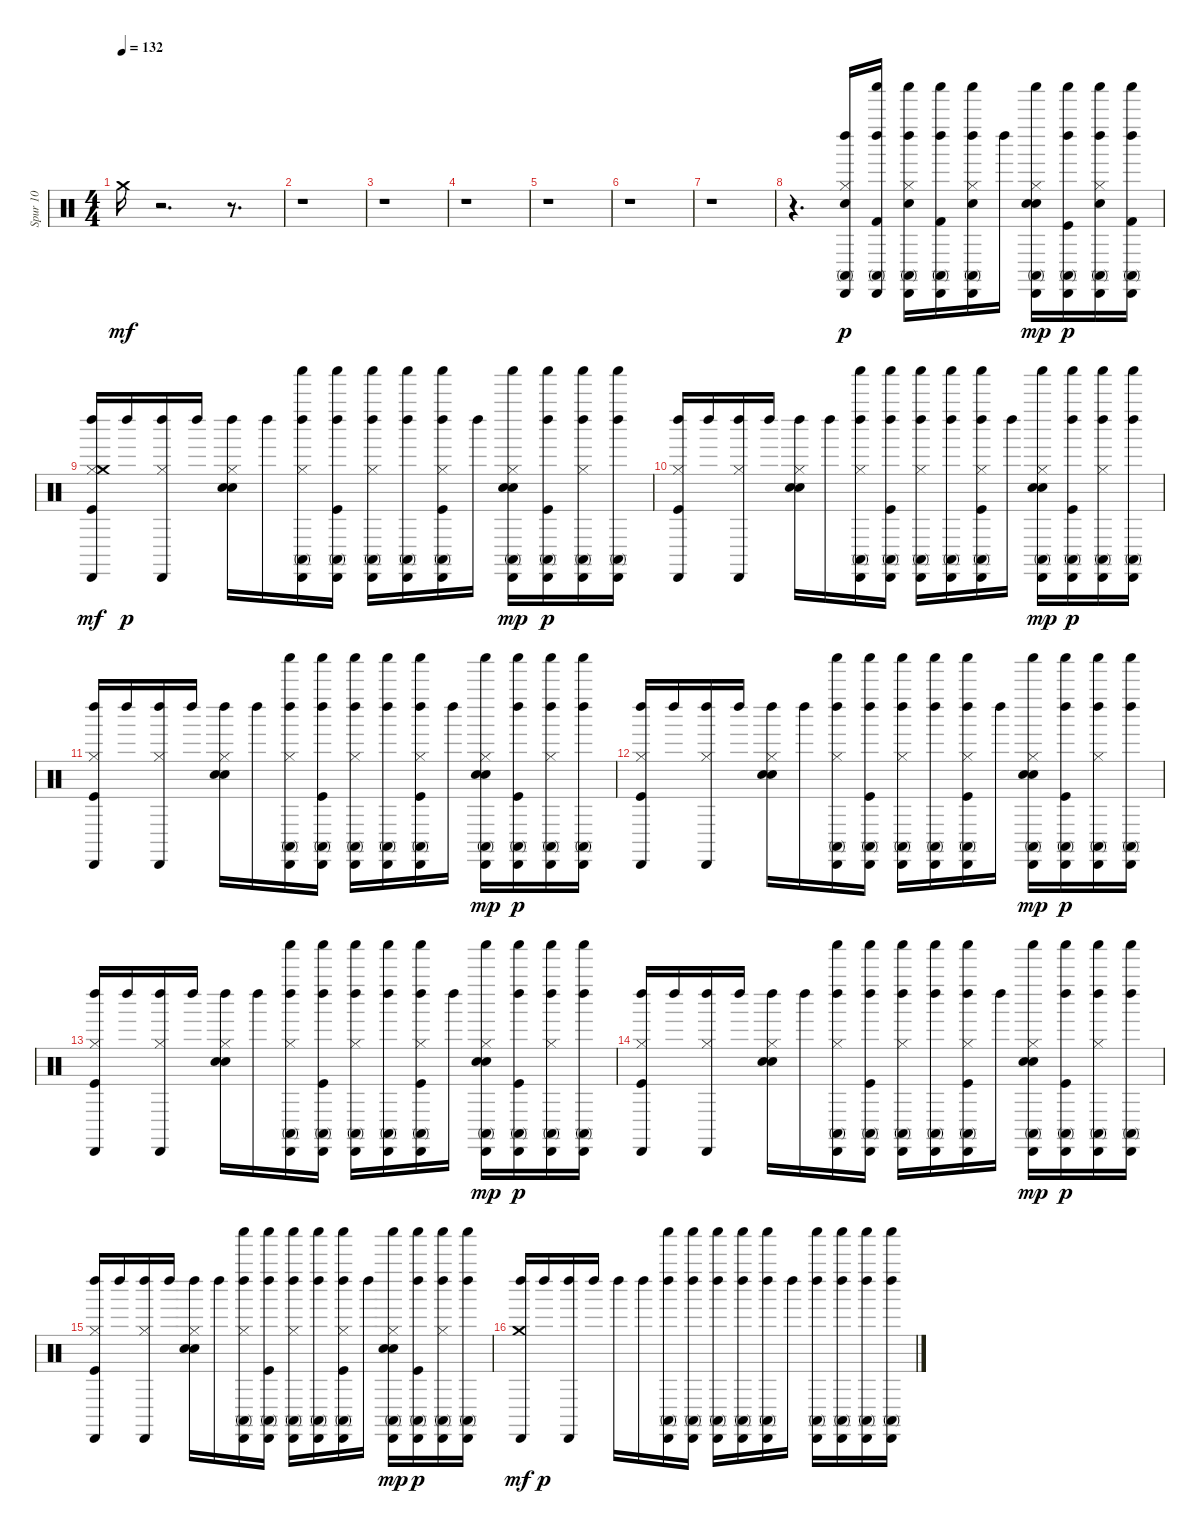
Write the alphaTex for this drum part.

\track ("Spur 10" "Spur 10") {instrument percussion}
\staff {score}
\articulation defaults
\ts (4 4)
\tempo 132
\clef neutral
\ks c "Crash medium (hit)".16{dy mf}
r.2{d} r.8{d} |
r.1 |
r.1 |
r.1 |
r.1 |
r.1 |
r.1 |
r.4{d} ("Cabasa (hit)" "Hi-Hat (closed)" "Electric Snare (hit)" "Conga high (mute)" "Left Maraca (hit)").16{dy p} ("Shaker (hit)" "Cabasa (hit)" "Kick (hit) 2" "Conga high (mute)" "Left Maraca (hit)").16 ("Shaker (hit)" "Cabasa (hit)" "Hi-Hat (closed)" "Electric Snare (hit)" "Conga high (mute)" "Left Maraca (hit)").16 ("Shaker (hit)" "Cabasa (hit)" "Kick (hit) 2" "Conga high (mute)" "Left Maraca (hit)").16 ("Shaker (hit)" "Cabasa (hit)" "Electric Snare (hit)" "Hi-Hat (closed)" "Conga high (mute)" "Left Maraca (hit)").16 "Left Maraca (hit)".16 ("Shaker (hit)" "Cabasa (hit)" "Hi-Hat (closed)" "Snare (hit) 2" "Conga high (mute)" "Hand Clap (hit)").16{dy mp} ("Shaker (hit)" "Cabasa (hit)" "Kick (hit)" "Conga high (mute)" "Left Maraca (hit)").16{dy p} ("Shaker (hit)" "Cabasa (hit)" "Hi-Hat (closed)" "Electric Snare (hit)" "Conga high (mute)" "Left Maraca (hit)").16 ("Shaker (hit)" "Cabasa (hit)" "Kick (hit) 2" "Conga high (mute)" "Left Maraca (hit)").16 |
("Kick (hit)" "Hi-Hat (closed)" "Cabasa (hit)" "Left Maraca (hit)" "Crash medium (hit)").16{dy mf} "Left Maraca (hit)".16{dy p} ("Hi-Hat (closed)" "Cabasa (hit)" "Left Maraca (hit)").16 "Left Maraca (hit)".16 ("Hi-Hat (closed)" "Snare (hit) 2" "Hand Clap (hit)" "Left Maraca (hit)").16 "Left Maraca (hit)".16 ("Shaker (hit)" "Hi-Hat (closed)" "Cabasa (hit)" "Conga high (mute)" "Left Maraca (hit)").16 ("Shaker (hit)" "Kick (hit)" "Cabasa (hit)" "Conga high (mute)" "Left Maraca (hit)").16 ("Shaker (hit)" "Hi-Hat (closed)" "Cabasa (hit)" "Conga high (mute)" "Left Maraca (hit)").16 ("Shaker (hit)" "Cabasa (hit)" "Conga high (mute)" "Left Maraca (hit)").16 ("Shaker (hit)" "Kick (hit)" "Hi-Hat (closed)" "Cabasa (hit)" "Conga high (mute)" "Left Maraca (hit)").16 "Left Maraca (hit)".16 ("Shaker (hit)" "Hi-Hat (closed)" "Snare (hit) 2" "Cabasa (hit)" "Conga high (mute)" "Hand Clap (hit)").16{dy mp} ("Shaker (hit)" "Kick (hit)" "Cabasa (hit)" "Conga high (mute)" "Left Maraca (hit)").16{dy p} ("Shaker (hit)" "Hi-Hat (closed)" "Cabasa (hit)" "Conga high (mute)" "Left Maraca (hit)").16 ("Shaker (hit)" "Cabasa (hit)" "Conga high (mute)" "Left Maraca (hit)").16 |
("Kick (hit)" "Hi-Hat (closed)" "Cabasa (hit)" "Left Maraca (hit)").16 "Left Maraca (hit)".16 ("Hi-Hat (closed)" "Cabasa (hit)" "Left Maraca (hit)").16 "Left Maraca (hit)".16 ("Hi-Hat (closed)" "Snare (hit) 2" "Hand Clap (hit)" "Left Maraca (hit)").16 "Left Maraca (hit)".16 ("Shaker (hit)" "Hi-Hat (closed)" "Conga high (mute)" "Cabasa (hit)" "Left Maraca (hit)").16 ("Shaker (hit)" "Kick (hit)" "Conga high (mute)" "Cabasa (hit)" "Left Maraca (hit)").16 ("Shaker (hit)" "Hi-Hat (closed)" "Conga high (mute)" "Cabasa (hit)" "Left Maraca (hit)").16 ("Shaker (hit)" "Conga high (mute)" "Cabasa (hit)" "Left Maraca (hit)").16 ("Shaker (hit)" "Kick (hit)" "Hi-Hat (closed)" "Conga high (mute)" "Cabasa (hit)" "Left Maraca (hit)").16 "Left Maraca (hit)".16 ("Shaker (hit)" "Hi-Hat (closed)" "Snare (hit) 2" "Conga high (mute)" "Cabasa (hit)" "Hand Clap (hit)").16{dy mp} ("Shaker (hit)" "Kick (hit)" "Conga high (mute)" "Cabasa (hit)" "Left Maraca (hit)").16{dy p} ("Shaker (hit)" "Hi-Hat (closed)" "Conga high (mute)" "Cabasa (hit)" "Left Maraca (hit)").16 ("Shaker (hit)" "Conga high (mute)" "Cabasa (hit)" "Left Maraca (hit)").16 |
("Kick (hit)" "Hi-Hat (closed)" "Cabasa (hit)" "Left Maraca (hit)").16 "Left Maraca (hit)".16 ("Hi-Hat (closed)" "Cabasa (hit)" "Left Maraca (hit)").16 "Left Maraca (hit)".16 ("Hi-Hat (closed)" "Snare (hit) 2" "Hand Clap (hit)" "Left Maraca (hit)").16 "Left Maraca (hit)".16 ("Shaker (hit)" "Hi-Hat (closed)" "Conga high (mute)" "Cabasa (hit)" "Left Maraca (hit)").16 ("Shaker (hit)" "Kick (hit)" "Conga high (mute)" "Cabasa (hit)" "Left Maraca (hit)").16 ("Shaker (hit)" "Hi-Hat (closed)" "Conga high (mute)" "Cabasa (hit)" "Left Maraca (hit)").16 ("Shaker (hit)" "Conga high (mute)" "Cabasa (hit)" "Left Maraca (hit)").16 ("Shaker (hit)" "Kick (hit)" "Hi-Hat (closed)" "Conga high (mute)" "Cabasa (hit)" "Left Maraca (hit)").16 "Left Maraca (hit)".16 ("Shaker (hit)" "Hi-Hat (closed)" "Snare (hit) 2" "Conga high (mute)" "Cabasa (hit)" "Hand Clap (hit)").16{dy mp} ("Shaker (hit)" "Kick (hit)" "Conga high (mute)" "Cabasa (hit)" "Left Maraca (hit)").16{dy p} ("Shaker (hit)" "Hi-Hat (closed)" "Conga high (mute)" "Cabasa (hit)" "Left Maraca (hit)").16 ("Shaker (hit)" "Conga high (mute)" "Cabasa (hit)" "Left Maraca (hit)").16 |
("Kick (hit)" "Hi-Hat (closed)" "Cabasa (hit)" "Left Maraca (hit)").16 "Left Maraca (hit)".16 ("Hi-Hat (closed)" "Cabasa (hit)" "Left Maraca (hit)").16 "Left Maraca (hit)".16 ("Hi-Hat (closed)" "Snare (hit) 2" "Hand Clap (hit)" "Left Maraca (hit)").16 "Left Maraca (hit)".16 ("Shaker (hit)" "Hi-Hat (closed)" "Cabasa (hit)" "Conga high (mute)" "Left Maraca (hit)").16 ("Shaker (hit)" "Kick (hit)" "Cabasa (hit)" "Conga high (mute)" "Left Maraca (hit)").16 ("Shaker (hit)" "Hi-Hat (closed)" "Cabasa (hit)" "Conga high (mute)" "Left Maraca (hit)").16 ("Shaker (hit)" "Cabasa (hit)" "Conga high (mute)" "Left Maraca (hit)").16 ("Shaker (hit)" "Kick (hit)" "Hi-Hat (closed)" "Cabasa (hit)" "Conga high (mute)" "Left Maraca (hit)").16 "Left Maraca (hit)".16 ("Shaker (hit)" "Hi-Hat (closed)" "Snare (hit) 2" "Cabasa (hit)" "Conga high (mute)" "Hand Clap (hit)").16{dy mp} ("Shaker (hit)" "Kick (hit)" "Cabasa (hit)" "Conga high (mute)" "Left Maraca (hit)").16{dy p} ("Shaker (hit)" "Hi-Hat (closed)" "Cabasa (hit)" "Conga high (mute)" "Left Maraca (hit)").16 ("Shaker (hit)" "Cabasa (hit)" "Conga high (mute)" "Left Maraca (hit)").16 |
("Kick (hit)" "Hi-Hat (closed)" "Left Maraca (hit)" "Cabasa (hit)").16 "Left Maraca (hit)".16 ("Hi-Hat (closed)" "Left Maraca (hit)" "Cabasa (hit)").16 "Left Maraca (hit)".16 ("Hi-Hat (closed)" "Snare (hit) 2" "Hand Clap (hit)" "Left Maraca (hit)").16 "Left Maraca (hit)".16 ("Shaker (hit)" "Hi-Hat (closed)" "Conga high (mute)" "Cabasa (hit)" "Left Maraca (hit)").16 ("Shaker (hit)" "Kick (hit)" "Conga high (mute)" "Cabasa (hit)" "Left Maraca (hit)").16 ("Shaker (hit)" "Hi-Hat (closed)" "Conga high (mute)" "Cabasa (hit)" "Left Maraca (hit)").16 ("Shaker (hit)" "Conga high (mute)" "Cabasa (hit)" "Left Maraca (hit)").16 ("Shaker (hit)" "Kick (hit)" "Hi-Hat (closed)" "Conga high (mute)" "Cabasa (hit)" "Left Maraca (hit)").16 "Left Maraca (hit)".16 ("Shaker (hit)" "Hi-Hat (closed)" "Snare (hit) 2" "Conga high (mute)" "Cabasa (hit)" "Hand Clap (hit)").16{dy mp} ("Shaker (hit)" "Kick (hit)" "Conga high (mute)" "Cabasa (hit)" "Left Maraca (hit)").16{dy p} ("Shaker (hit)" "Hi-Hat (closed)" "Conga high (mute)" "Cabasa (hit)" "Left Maraca (hit)").16 ("Shaker (hit)" "Conga high (mute)" "Cabasa (hit)" "Left Maraca (hit)").16 |
("Kick (hit)" "Hi-Hat (closed)" "Cabasa (hit)" "Left Maraca (hit)").16 "Left Maraca (hit)".16 ("Hi-Hat (closed)" "Cabasa (hit)" "Left Maraca (hit)").16 "Left Maraca (hit)".16 ("Hi-Hat (closed)" "Snare (hit) 2" "Hand Clap (hit)" "Left Maraca (hit)").16 "Left Maraca (hit)".16 ("Shaker (hit)" "Hi-Hat (closed)" "Cabasa (hit)" "Conga high (mute)" "Left Maraca (hit)").16 ("Shaker (hit)" "Kick (hit)" "Cabasa (hit)" "Conga high (mute)" "Left Maraca (hit)").16 ("Shaker (hit)" "Hi-Hat (closed)" "Cabasa (hit)" "Conga high (mute)" "Left Maraca (hit)").16 ("Shaker (hit)" "Cabasa (hit)" "Conga high (mute)" "Left Maraca (hit)").16 ("Shaker (hit)" "Kick (hit)" "Hi-Hat (closed)" "Cabasa (hit)" "Conga high (mute)" "Left Maraca (hit)").16 "Left Maraca (hit)".16 ("Shaker (hit)" "Hi-Hat (closed)" "Snare (hit) 2" "Cabasa (hit)" "Conga high (mute)" "Hand Clap (hit)").16{dy mp} ("Shaker (hit)" "Kick (hit)" "Cabasa (hit)" "Conga high (mute)" "Left Maraca (hit)").16{dy p} ("Shaker (hit)" "Hi-Hat (closed)" "Cabasa (hit)" "Conga high (mute)" "Left Maraca (hit)").16 ("Shaker (hit)" "Cabasa (hit)" "Conga high (mute)" "Left Maraca (hit)").16 |
("Kick (hit)" "Hi-Hat (closed)" "Cabasa (hit)" "Left Maraca (hit)").16 "Left Maraca (hit)".16 ("Hi-Hat (closed)" "Cabasa (hit)" "Left Maraca (hit)").16 "Left Maraca (hit)".16 ("Hi-Hat (closed)" "Snare (hit) 2" "Hand Clap (hit)" "Left Maraca (hit)").16 "Left Maraca (hit)".16 ("Shaker (hit)" "Hi-Hat (closed)" "Conga high (mute)" "Cabasa (hit)" "Left Maraca (hit)").16 ("Shaker (hit)" "Kick (hit)" "Conga high (mute)" "Cabasa (hit)" "Left Maraca (hit)").16 ("Shaker (hit)" "Hi-Hat (closed)" "Conga high (mute)" "Cabasa (hit)" "Left Maraca (hit)").16 ("Shaker (hit)" "Conga high (mute)" "Cabasa (hit)" "Left Maraca (hit)").16 ("Shaker (hit)" "Kick (hit)" "Hi-Hat (closed)" "Conga high (mute)" "Cabasa (hit)" "Left Maraca (hit)").16 "Left Maraca (hit)".16 ("Shaker (hit)" "Hi-Hat (closed)" "Snare (hit) 2" "Conga high (mute)" "Cabasa (hit)" "Hand Clap (hit)").16{dy mp} ("Shaker (hit)" "Kick (hit)" "Conga high (mute)" "Cabasa (hit)" "Left Maraca (hit)").16{dy p} ("Shaker (hit)" "Hi-Hat (closed)" "Conga high (mute)" "Cabasa (hit)" "Left Maraca (hit)").16 ("Shaker (hit)" "Conga high (mute)" "Cabasa (hit)" "Left Maraca (hit)").16 |
("Cabasa (hit)" "Left Maraca (hit)" "Crash medium (hit)").16{dy mf} "Left Maraca (hit)".16{dy p} ("Cabasa (hit)" "Left Maraca (hit)").16 "Left Maraca (hit)".16 "Left Maraca (hit)".16 "Left Maraca (hit)".16 ("Shaker (hit)" "Conga high (mute)" "Cabasa (hit)" "Left Maraca (hit)").16 ("Shaker (hit)" "Conga high (mute)" "Cabasa (hit)" "Left Maraca (hit)").16 ("Shaker (hit)" "Conga high (mute)" "Cabasa (hit)" "Left Maraca (hit)").16 ("Shaker (hit)" "Conga high (mute)" "Cabasa (hit)" "Left Maraca (hit)").16 ("Shaker (hit)" "Conga high (mute)" "Cabasa (hit)" "Left Maraca (hit)").16 "Left Maraca (hit)".16 ("Shaker (hit)" "Conga high (mute)" "Cabasa (hit)" "Left Maraca (hit)").16 ("Shaker (hit)" "Conga high (mute)" "Cabasa (hit)" "Left Maraca (hit)").16 ("Shaker (hit)" "Conga high (mute)" "Cabasa (hit)" "Left Maraca (hit)").16 ("Shaker (hit)" "Conga high (mute)" "Cabasa (hit)" "Left Maraca (hit)").16
